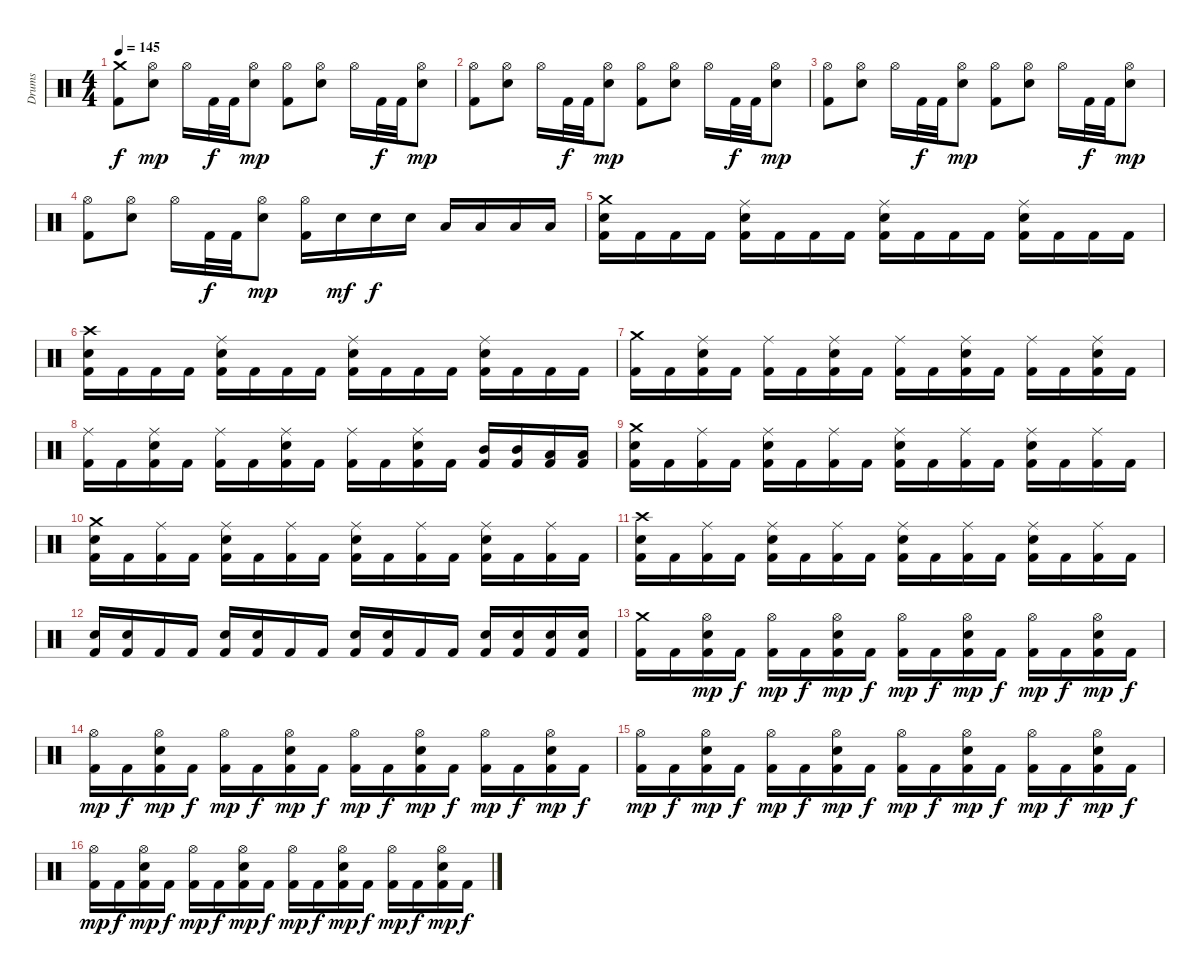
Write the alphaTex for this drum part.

\track ("Drums" "Drums") {instrument percussion}
\staff {score}
\articulation defaults
\ts (4 4)
\tempo 145
\clef neutral
\ks c
("Crash medium (hit)" "Kick (hit) 2").8{dy f} ("Hi-Hat (open)" "Electric Snare (hit)").8{dy mp} "Hi-Hat (open)".16 "Kick (hit) 2".32{dy f} "Kick (hit) 2".32 ("Hi-Hat (open)" "Electric Snare (hit)").8{dy mp} ("Hi-Hat (open)" "Kick (hit) 2").8 ("Hi-Hat (open)" "Electric Snare (hit)").8 "Hi-Hat (open)".16 "Kick (hit) 2".32{dy f} "Kick (hit) 2".32 ("Hi-Hat (open)" "Electric Snare (hit)").8{dy mp} |
("Hi-Hat (open)" "Kick (hit) 2").8 ("Hi-Hat (open)" "Electric Snare (hit)").8 "Hi-Hat (open)".16 "Kick (hit) 2".32{dy f} "Kick (hit) 2".32 ("Hi-Hat (open)" "Electric Snare (hit)").8{dy mp} ("Hi-Hat (open)" "Kick (hit) 2").8 ("Hi-Hat (open)" "Electric Snare (hit)").8 "Hi-Hat (open)".16 "Kick (hit) 2".32{dy f} "Kick (hit) 2".32 ("Hi-Hat (open)" "Electric Snare (hit)").8{dy mp} |
("Hi-Hat (open)" "Kick (hit) 2").8 ("Hi-Hat (open)" "Electric Snare (hit)").8 "Hi-Hat (open)".16 "Kick (hit) 2".32{dy f} "Kick (hit) 2".32 ("Hi-Hat (open)" "Electric Snare (hit)").8{dy mp} ("Hi-Hat (open)" "Kick (hit) 2").8 ("Hi-Hat (open)" "Electric Snare (hit)").8 "Hi-Hat (open)".16 "Kick (hit) 2".32{dy f} "Kick (hit) 2".32 ("Hi-Hat (open)" "Electric Snare (hit)").8{dy mp} |
("Hi-Hat (open)" "Kick (hit) 2").8 ("Hi-Hat (open)" "Electric Snare (hit)").8 "Hi-Hat (open)".16 "Kick (hit) 2".32{dy f} "Kick (hit) 2".32 ("Hi-Hat (open)" "Electric Snare (hit)").8{dy mp} ("Hi-Hat (open)" "Kick (hit) 2").16 "Electric Snare (hit)".16{dy mf} "Electric Snare (hit)".16{dy f} "Electric Snare (hit)".16 "Low Tom (hit)".16 "Low Tom (hit)".16 "Low Tom (hit)".16 "Low Tom (hit)".16 |
("Crash medium (hit)" "Kick (hit) 2" "Electric Snare (hit)").16 "Kick (hit) 2".16 "Kick (hit) 2".16 "Kick (hit) 2".16 ("Ride (middle)" "Kick (hit) 2" "Electric Snare (hit)").16 "Kick (hit) 2".16 "Kick (hit) 2".16 "Kick (hit) 2".16 ("Ride (middle)" "Kick (hit) 2" "Electric Snare (hit)").16 "Kick (hit) 2".16 "Kick (hit) 2".16 "Kick (hit) 2".16 ("Ride (middle)" "Kick (hit) 2" "Electric Snare (hit)").16 "Kick (hit) 2".16 "Kick (hit) 2".16 "Kick (hit) 2".16 |
("Crash high (hit)" "Kick (hit) 2" "Electric Snare (hit)").16 "Kick (hit) 2".16 "Kick (hit) 2".16 "Kick (hit) 2".16 ("Ride (middle)" "Kick (hit) 2" "Electric Snare (hit)").16 "Kick (hit) 2".16 "Kick (hit) 2".16 "Kick (hit) 2".16 ("Ride (middle)" "Kick (hit) 2" "Electric Snare (hit)").16 "Kick (hit) 2".16 "Kick (hit) 2".16 "Kick (hit) 2".16 ("Ride (middle)" "Kick (hit) 2" "Electric Snare (hit)").16 "Kick (hit) 2".16 "Kick (hit) 2".16 "Kick (hit) 2".16 |
("Crash medium (hit)" "Kick (hit) 2").16 "Kick (hit) 2".16 ("Ride (middle)" "Kick (hit) 2" "Electric Snare (hit)").16 "Kick (hit) 2".16 ("Ride (middle)" "Kick (hit) 2").16 "Kick (hit) 2".16 ("Ride (middle)" "Kick (hit) 2" "Electric Snare (hit)").16 "Kick (hit) 2".16 ("Ride (middle)" "Kick (hit) 2").16 "Kick (hit) 2".16 ("Ride (middle)" "Kick (hit) 2" "Electric Snare (hit)").16 "Kick (hit) 2".16 ("Ride (middle)" "Kick (hit) 2").16 "Kick (hit) 2".16 ("Ride (middle)" "Kick (hit) 2" "Electric Snare (hit)").16 "Kick (hit) 2".16 |
("Ride (middle)" "Kick (hit) 2").16 "Kick (hit) 2".16 ("Ride (middle)" "Kick (hit) 2" "Electric Snare (hit)").16 "Kick (hit) 2".16 ("Ride (middle)" "Kick (hit) 2").16 "Kick (hit) 2".16 ("Ride (middle)" "Kick (hit) 2" "Electric Snare (hit)").16 "Kick (hit) 2".16 ("Ride (middle)" "Kick (hit) 2").16 "Kick (hit) 2".16 ("Ride (middle)" "Kick (hit) 2" "Electric Snare (hit)").16 "Kick (hit) 2".16 ("Mid Tom (hit)" "Kick (hit) 2").16 ("Mid Tom (hit)" "Kick (hit) 2").16 ("Low Tom (hit)" "Kick (hit) 2").16 ("Low Tom (hit)" "Kick (hit) 2").16 |
("Crash medium (hit)" "Kick (hit) 2" "Electric Snare (hit)").16 "Kick (hit) 2".16 ("Ride (middle)" "Kick (hit) 2").16 "Kick (hit) 2".16 ("Ride (middle)" "Kick (hit) 2" "Electric Snare (hit)").16 "Kick (hit) 2".16 ("Ride (middle)" "Kick (hit) 2").16 "Kick (hit) 2".16 ("Ride (middle)" "Kick (hit) 2" "Electric Snare (hit)").16 "Kick (hit) 2".16 ("Ride (middle)" "Kick (hit) 2").16 "Kick (hit) 2".16 ("Ride (middle)" "Kick (hit) 2" "Electric Snare (hit)").16 "Kick (hit) 2".16 ("Ride (middle)" "Kick (hit) 2").16 "Kick (hit) 2".16 |
("Crash medium (hit)" "Kick (hit) 2" "Electric Snare (hit)").16 "Kick (hit) 2".16 ("Ride (middle)" "Kick (hit) 2").16 "Kick (hit) 2".16 ("Ride (middle)" "Kick (hit) 2" "Electric Snare (hit)").16 "Kick (hit) 2".16 ("Ride (middle)" "Kick (hit) 2").16 "Kick (hit) 2".16 ("Ride (middle)" "Kick (hit) 2" "Electric Snare (hit)").16 "Kick (hit) 2".16 ("Ride (middle)" "Kick (hit) 2").16 "Kick (hit) 2".16 ("Ride (middle)" "Kick (hit) 2" "Electric Snare (hit)").16 "Kick (hit) 2".16 ("Ride (middle)" "Kick (hit) 2").16 "Kick (hit) 2".16 |
("Crash high (hit)" "Kick (hit) 2" "Electric Snare (hit)").16 "Kick (hit) 2".16 ("Ride (middle)" "Kick (hit) 2").16 "Kick (hit) 2".16 ("Ride (middle)" "Kick (hit) 2" "Electric Snare (hit)").16 "Kick (hit) 2".16 ("Ride (middle)" "Kick (hit) 2").16 "Kick (hit) 2".16 ("Ride (middle)" "Kick (hit) 2" "Electric Snare (hit)").16 "Kick (hit) 2".16 ("Ride (middle)" "Kick (hit) 2").16 "Kick (hit) 2".16 ("Ride (middle)" "Kick (hit) 2" "Electric Snare (hit)").16 "Kick (hit) 2".16 ("Ride (middle)" "Kick (hit) 2").16 "Kick (hit) 2".16 |
("Electric Snare (hit)" "Kick (hit) 2").16 ("Electric Snare (hit)" "Kick (hit) 2").16 "Kick (hit) 2".16 "Kick (hit) 2".16 ("Electric Snare (hit)" "Kick (hit) 2").16 ("Electric Snare (hit)" "Kick (hit) 2").16 "Kick (hit) 2".16 "Kick (hit) 2".16 ("Electric Snare (hit)" "Kick (hit) 2").16 ("Electric Snare (hit)" "Kick (hit) 2").16 "Kick (hit) 2".16 "Kick (hit) 2".16 ("Electric Snare (hit)" "Kick (hit) 2").16 ("Electric Snare (hit)" "Kick (hit) 2").16 ("Electric Snare (hit)" "Kick (hit) 2").16 ("Electric Snare (hit)" "Kick (hit) 2").16 |
("Crash medium (hit)" "Kick (hit) 2").16 "Kick (hit) 2".16 ("Hi-Hat (open)" "Kick (hit) 2" "Electric Snare (hit)").16{dy mp} "Kick (hit) 2".16{dy f} ("Hi-Hat (open)" "Kick (hit) 2").16{dy mp} "Kick (hit) 2".16{dy f} ("Hi-Hat (open)" "Kick (hit) 2" "Electric Snare (hit)").16{dy mp} "Kick (hit) 2".16{dy f} ("Hi-Hat (open)" "Kick (hit) 2").16{dy mp} "Kick (hit) 2".16{dy f} ("Hi-Hat (open)" "Kick (hit) 2" "Electric Snare (hit)").16{dy mp} "Kick (hit) 2".16{dy f} ("Hi-Hat (open)" "Kick (hit) 2").16{dy mp} "Kick (hit) 2".16{dy f} ("Hi-Hat (open)" "Kick (hit) 2" "Electric Snare (hit)").16{dy mp} "Kick (hit) 2".16{dy f} |
("Hi-Hat (open)" "Kick (hit) 2").16{dy mp} "Kick (hit) 2".16{dy f} ("Hi-Hat (open)" "Kick (hit) 2" "Electric Snare (hit)").16{dy mp} "Kick (hit) 2".16{dy f} ("Hi-Hat (open)" "Kick (hit) 2").16{dy mp} "Kick (hit) 2".16{dy f} ("Hi-Hat (open)" "Kick (hit) 2" "Electric Snare (hit)").16{dy mp} "Kick (hit) 2".16{dy f} ("Hi-Hat (open)" "Kick (hit) 2").16{dy mp} "Kick (hit) 2".16{dy f} ("Hi-Hat (open)" "Kick (hit) 2" "Electric Snare (hit)").16{dy mp} "Kick (hit) 2".16{dy f} ("Hi-Hat (open)" "Kick (hit) 2").16{dy mp} "Kick (hit) 2".16{dy f} ("Hi-Hat (open)" "Kick (hit) 2" "Electric Snare (hit)").16{dy mp} "Kick (hit) 2".16{dy f} |
("Hi-Hat (open)" "Kick (hit) 2").16{dy mp} "Kick (hit) 2".16{dy f} ("Hi-Hat (open)" "Kick (hit) 2" "Electric Snare (hit)").16{dy mp} "Kick (hit) 2".16{dy f} ("Hi-Hat (open)" "Kick (hit) 2").16{dy mp} "Kick (hit) 2".16{dy f} ("Hi-Hat (open)" "Kick (hit) 2" "Electric Snare (hit)").16{dy mp} "Kick (hit) 2".16{dy f} ("Hi-Hat (open)" "Kick (hit) 2").16{dy mp} "Kick (hit) 2".16{dy f} ("Hi-Hat (open)" "Kick (hit) 2" "Electric Snare (hit)").16{dy mp} "Kick (hit) 2".16{dy f} ("Hi-Hat (open)" "Kick (hit) 2").16{dy mp} "Kick (hit) 2".16{dy f} ("Hi-Hat (open)" "Kick (hit) 2" "Electric Snare (hit)").16{dy mp} "Kick (hit) 2".16{dy f} |
("Hi-Hat (open)" "Kick (hit) 2").16{dy mp} "Kick (hit) 2".16{dy f} ("Hi-Hat (open)" "Kick (hit) 2" "Electric Snare (hit)").16{dy mp} "Kick (hit) 2".16{dy f} ("Hi-Hat (open)" "Kick (hit) 2").16{dy mp} "Kick (hit) 2".16{dy f} ("Hi-Hat (open)" "Kick (hit) 2" "Electric Snare (hit)").16{dy mp} "Kick (hit) 2".16{dy f} ("Hi-Hat (open)" "Kick (hit) 2").16{dy mp} "Kick (hit) 2".16{dy f} ("Hi-Hat (open)" "Kick (hit) 2" "Electric Snare (hit)").16{dy mp} "Kick (hit) 2".16{dy f} ("Hi-Hat (open)" "Kick (hit) 2").16{dy mp} "Kick (hit) 2".16{dy f} ("Hi-Hat (open)" "Kick (hit) 2" "Electric Snare (hit)").16{dy mp} "Kick (hit) 2".16{dy f}
